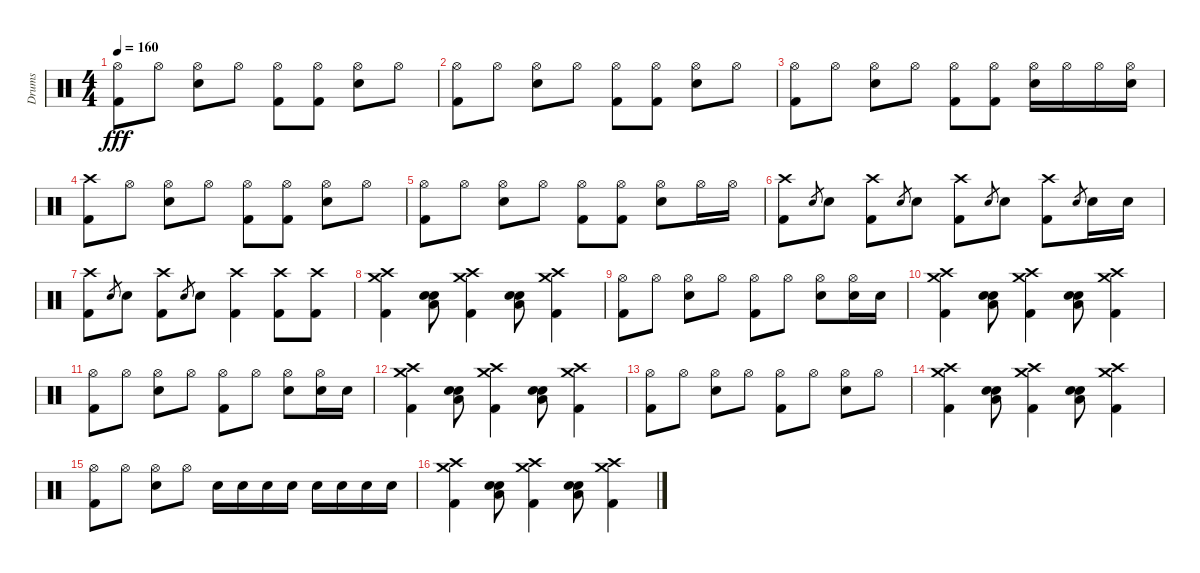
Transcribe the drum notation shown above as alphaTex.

\track ("Drums" "Drums") {instrument percussion}
\staff {score}
\articulation defaults
\ts (4 4)
\tempo 160
\clef neutral
\ks c
("Hi-Hat (open)" "Kick (hit) 2").8{dy fff} "Hi-Hat (open)".8 ("Hi-Hat (open)" "Electric Snare (hit)").8 "Hi-Hat (open)".8 ("Hi-Hat (open)" "Kick (hit) 2").8 ("Hi-Hat (open)" "Kick (hit) 2").8 ("Hi-Hat (open)" "Electric Snare (hit)").8 "Hi-Hat (open)".8 |
("Hi-Hat (open)" "Kick (hit) 2").8 "Hi-Hat (open)".8 ("Hi-Hat (open)" "Electric Snare (hit)").8 "Hi-Hat (open)".8 ("Hi-Hat (open)" "Kick (hit) 2").8 ("Hi-Hat (open)" "Kick (hit) 2").8 ("Hi-Hat (open)" "Electric Snare (hit)").8 "Hi-Hat (open)".8 |
("Hi-Hat (open)" "Kick (hit) 2").8 "Hi-Hat (open)".8 ("Hi-Hat (open)" "Electric Snare (hit)").8 "Hi-Hat (open)".8 ("Hi-Hat (open)" "Kick (hit) 2").8 ("Hi-Hat (open)" "Kick (hit) 2").8 ("Hi-Hat (open)" "Electric Snare (hit)").16 "Hi-Hat (open)".16 "Hi-Hat (open)".16 ("Hi-Hat (open)" "Electric Snare (hit)").16 |
("Crash high (hit)" "Kick (hit) 2").8 "Hi-Hat (open)".8 ("Hi-Hat (open)" "Electric Snare (hit)").8 "Hi-Hat (open)".8 ("Hi-Hat (open)" "Kick (hit) 2").8 ("Hi-Hat (open)" "Kick (hit) 2").8 ("Hi-Hat (open)" "Electric Snare (hit)").8 "Hi-Hat (open)".8 |
("Hi-Hat (open)" "Kick (hit) 2").8 "Hi-Hat (open)".8 ("Hi-Hat (open)" "Electric Snare (hit)").8 "Hi-Hat (open)".8 ("Hi-Hat (open)" "Kick (hit) 2").8 ("Hi-Hat (open)" "Kick (hit) 2").8 ("Hi-Hat (open)" "Electric Snare (hit)").8 "Hi-Hat (open)".16 "Hi-Hat (open)".16 |
("Crash high (hit)" "Kick (hit) 2").8 "Snare (hit) 2".8{gr} "Snare (hit) 2".8 ("Crash high (hit)" "Kick (hit) 2").8 "Snare (hit) 2".8{gr} "Snare (hit) 2".8 ("Crash high (hit)" "Kick (hit) 2").8 "Snare (hit) 2".8{gr} "Snare (hit) 2".8 ("Crash high (hit)" "Kick (hit) 2").8 "Snare (hit) 2".8{gr} "Snare (hit) 2".16 "Snare (hit) 2".16 |
("Crash high (hit)" "Kick (hit) 2").8 "Snare (hit) 2".8{gr} "Snare (hit) 2".8 ("Crash high (hit)" "Kick (hit) 2").8 "Snare (hit) 2".8{gr} "Snare (hit) 2".8 ("Crash high (hit)" "Kick (hit) 2").4 ("Crash high (hit)" "Kick (hit) 2").8 ("Crash high (hit)" "Kick (hit) 2").8 |
("Crash medium (hit)" "Crash high (hit)" "Kick (hit) 2").4 ("Snare (hit) 2" "Electric Snare (hit)" "Low Floor Tom (hit)").8 ("Crash medium (hit)" "Crash high (hit)" "Kick (hit) 2").4 ("Snare (hit) 2" "Electric Snare (hit)" "Low Floor Tom (hit)").8 ("Crash medium (hit)" "Crash high (hit)" "Kick (hit) 2").4 |
("Hi-Hat (open)" "Kick (hit) 2").8 "Hi-Hat (open)".8 ("Hi-Hat (open)" "Snare (hit) 2").8 "Hi-Hat (open)".8 ("Hi-Hat (open)" "Kick (hit) 2").8 "Hi-Hat (open)".8 ("Hi-Hat (open)" "Snare (hit) 2").8 ("Hi-Hat (open)" "Snare (hit) 2").16 "Snare (hit) 2".16 |
("Crash medium (hit)" "Crash high (hit)" "Kick (hit) 2").4 ("Snare (hit) 2" "Electric Snare (hit)" "Low Floor Tom (hit)").8 ("Crash medium (hit)" "Crash high (hit)" "Kick (hit) 2").4 ("Snare (hit) 2" "Electric Snare (hit)" "Low Floor Tom (hit)").8 ("Crash medium (hit)" "Crash high (hit)" "Kick (hit) 2").4 |
("Hi-Hat (open)" "Kick (hit) 2").8 "Hi-Hat (open)".8 ("Hi-Hat (open)" "Snare (hit) 2").8 "Hi-Hat (open)".8 ("Hi-Hat (open)" "Kick (hit) 2").8 "Hi-Hat (open)".8 ("Hi-Hat (open)" "Snare (hit) 2").8 ("Hi-Hat (open)" "Snare (hit) 2").16 "Snare (hit) 2".16 |
("Crash medium (hit)" "Crash high (hit)" "Kick (hit) 2").4 ("Snare (hit) 2" "Electric Snare (hit)" "Low Floor Tom (hit)").8 ("Crash medium (hit)" "Crash high (hit)" "Kick (hit) 2").4 ("Snare (hit) 2" "Electric Snare (hit)" "Low Floor Tom (hit)").8 ("Crash medium (hit)" "Crash high (hit)" "Kick (hit) 2").4 |
("Hi-Hat (open)" "Kick (hit) 2").8 "Hi-Hat (open)".8 ("Hi-Hat (open)" "Snare (hit) 2").8 "Hi-Hat (open)".8 ("Hi-Hat (open)" "Kick (hit) 2").8 "Hi-Hat (open)".8 ("Hi-Hat (open)" "Snare (hit) 2").8 "Hi-Hat (open)".8 |
("Crash medium (hit)" "Crash high (hit)" "Kick (hit) 2").4 ("Snare (hit) 2" "Electric Snare (hit)" "Low Floor Tom (hit)").8 ("Crash medium (hit)" "Crash high (hit)" "Kick (hit) 2").4 ("Snare (hit) 2" "Electric Snare (hit)" "Low Floor Tom (hit)").8 ("Crash medium (hit)" "Crash high (hit)" "Kick (hit) 2").4 |
("Hi-Hat (open)" "Kick (hit) 2").8 "Hi-Hat (open)".8 ("Hi-Hat (open)" "Snare (hit) 2").8 "Hi-Hat (open)".8 "Snare (hit) 2".16 "Snare (hit) 2".16 "Snare (hit) 2".16 "Snare (hit) 2".16 "Snare (hit) 2".16 "Snare (hit) 2".16 "Snare (hit) 2".16 "Snare (hit) 2".16 |
("Crash medium (hit)" "Crash high (hit)" "Kick (hit) 2").4 ("Snare (hit) 2" "Electric Snare (hit)" "Low Floor Tom (hit)").8 ("Crash medium (hit)" "Crash high (hit)" "Kick (hit) 2").4 ("Snare (hit) 2" "Electric Snare (hit)" "Low Floor Tom (hit)").8 ("Crash medium (hit)" "Crash high (hit)" "Kick (hit) 2").4
